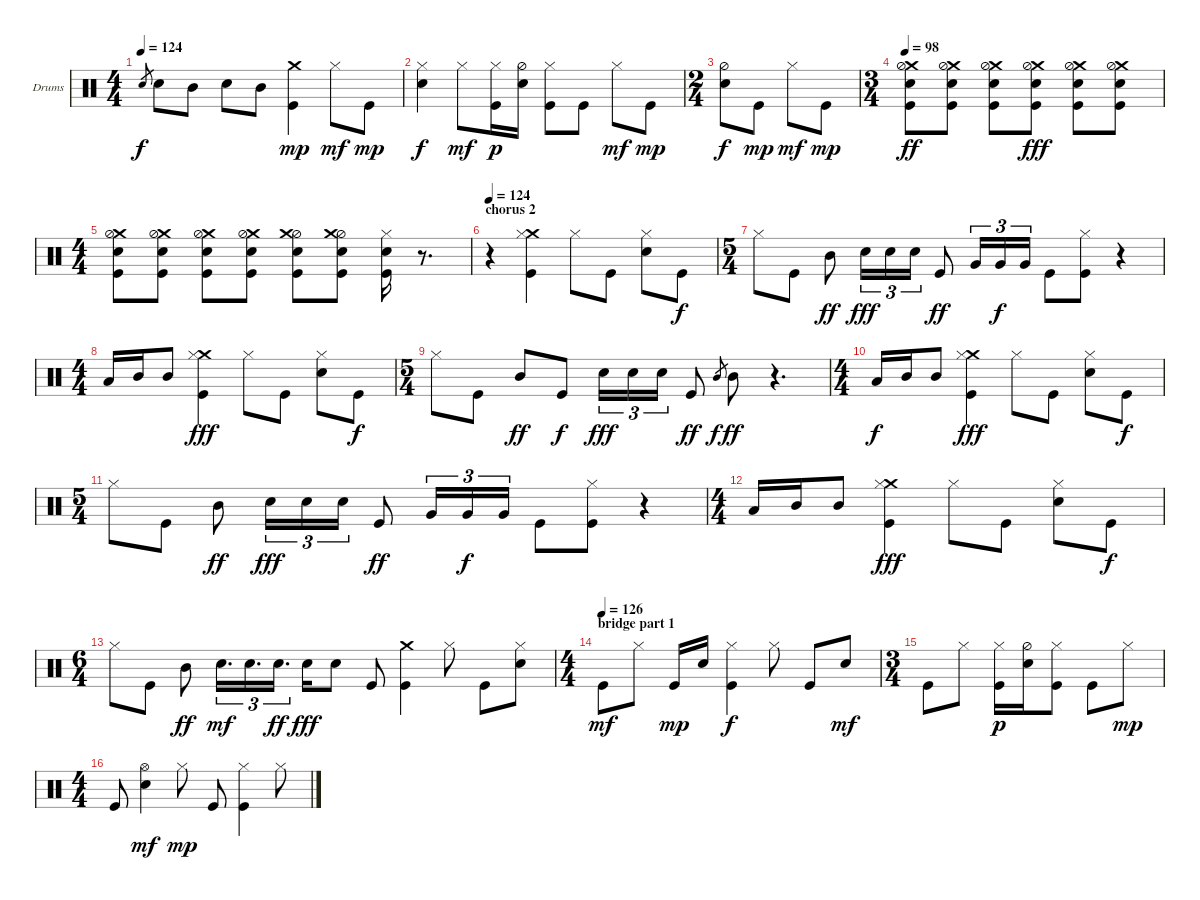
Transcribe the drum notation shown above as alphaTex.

\bracketExtendMode groupsimilarinstruments
\firstSystemTrackNameOrientation horizontal
\otherSystemsTrackNameOrientation horizontal
\track ("drums - john hinch" "Drums") {instrument percussion}
\staff {score}
\articulation defaults
\ts (4 4)
\tempo 124
\clef neutral
\scale
0.333333
\ks c "Snare (hit) 2".8{gr dy f} "Snare (hit) 2".8 "Mid Tom (hit)".8 "Snare (hit) 2".8 "Mid Tom (hit)".8
("Kick (hit)" "Crash medium (hit)").4{dy mp} "Hi-Hat (closed)".8{dy mf} "Kick (hit)".8{dy mp} |
\scale
0.217054 ("Snare (hit) 2" "Hi-Hat (closed)").4{dy f} "Hi-Hat (closed)".8{dy mf} ("Kick (hit)" "Hi-Hat (closed)").16{dy p} ("Snare (hit) 2" "Hi-Hat (half)").16 ("Kick (hit)" "Hi-Hat (closed)").8 "Kick (hit)".8 "Hi-Hat (closed)".8{dy mf} "Kick (hit)".8{dy mp} |
\ts (2 4)
\scale
0.391473 ("Snare (hit) 2" "Hi-Hat (half)").8{dy f} "Kick (hit)".8{dy mp} "Hi-Hat (closed)".8{dy mf} "Kick (hit)".8{dy mp} |
\ts (3 4)
\tempo 98
\scale
0.391473 ("Kick (hit)" "Crash medium (hit)" "Hi-Hat (half)" "Snare (hit) 2").8{dy ff} ("Kick (hit)" "Crash medium (hit)" "Hi-Hat (half)" "Snare (hit) 2").8 ("Kick (hit)" "Crash medium (hit)" "Hi-Hat (half)" "Snare (hit) 2").8 ("Kick (hit)" "Crash medium (hit)" "Hi-Hat (half)" "Snare (hit) 2").8{dy fff} ("Kick (hit)" "Crash medium (hit)" "Hi-Hat (half)" "Snare (hit) 2").8 ("Kick (hit)" "Crash medium (hit)" "Hi-Hat (half)" "Snare (hit) 2").8 |
\ts (4 4)
\scale
0.262911 ("Kick (hit)" "Crash medium (hit)" "Hi-Hat (half)" "Snare (hit) 2").8 ("Kick (hit)" "Crash medium (hit)" "Hi-Hat (half)" "Snare (hit) 2").8 ("Kick (hit)" "Crash medium (hit)" "Hi-Hat (half)" "Snare (hit) 2").8 ("Kick (hit)" "Crash medium (hit)" "Hi-Hat (half)" "Snare (hit) 2").8 ("Kick (hit)" "Hi-Hat (half)" "Snare (hit) 2" "Crash medium (hit)").8 ("Kick (hit)" "Hi-Hat (half)" "Snare (hit) 2" "Crash medium (hit)").8 ("Kick (hit)" "Hi-Hat (closed)" "Snare (hit) 2").16 r.8{d} |
\section ("" "chorus 2")
\tempo 124
\scale
0.262911 r.4 ("Kick (hit)" "Crash medium (hit)" "Hi-Hat (closed)").4 "Hi-Hat (closed)".8 "Kick (hit)".8 ("Snare (hit) 2" "Hi-Hat (closed)").8 "Kick (hit)".8{dy f} |
\ts (5 4)
\scale
0.474178 "Hi-Hat (closed)".8 "Kick (hit)".8 "Mid Tom (hit)".8{dy ff} "Snare (hit) 2".16{tu (3 2) dy fff} "Snare (hit) 2".16{tu (3 2)} "Snare (hit) 2".16{tu (3 2)} "Kick (hit)".8{dy ff} "Very Low Tom (hit)".16{tu (3 2)} "Very Low Tom (hit)".16{tu (3 2) dy f} "Very Low Tom (hit)".16{tu (3 2)} "Kick (hit)".8 ("Kick (hit)" "Hi-Hat (closed)").8 r.4 |
\ts (4 4)
\scale
0.333333 "Low Tom (hit)".16 "Mid Tom (hit)".16 "Mid Tom (hit)".8 ("Kick (hit)" "Crash medium (hit)" "Hi-Hat (closed)").4{dy fff} "Hi-Hat (closed)".8 "Kick (hit)".8 ("Snare (hit) 2" "Hi-Hat (closed)").8 "Kick (hit)".8{dy f} |
\ts (5 4)
\scale
0.47304
\scale
0.333333 "Hi-Hat (closed)".8 "Kick (hit)".8 "Mid Tom (hit)".8{dy ff} "Kick (hit)".8{dy f} "Snare (hit) 2".16{tu (3 2) dy fff} "Snare (hit) 2".16{tu (3 2)} "Snare (hit) 2".16{tu (3 2)} "Kick (hit)".8{dy ff} "Mid Tom (hit)".8{gr dy f} "Mid Tom (hit)".8{dy ff} r.4{d} |
\ts (4 4)
\scale
0.284064
\scale
0.333333 "Low Tom (hit)".16{dy f} "Mid Tom (hit)".16 "Mid Tom (hit)".8 ("Kick (hit)" "Crash medium (hit)" "Hi-Hat (closed)").4{dy fff} "Hi-Hat (closed)".8 "Kick (hit)".8 ("Snare (hit) 2" "Hi-Hat (closed)").8 "Kick (hit)".8{dy f} |
\ts (5 4)
\scale
0.243665
\scale
0.333333 "Hi-Hat (closed)".8 "Kick (hit)".8 "Mid Tom (hit)".8{dy ff} "Snare (hit) 2".16{tu (3 2) dy fff} "Snare (hit) 2".16{tu (3 2)} "Snare (hit) 2".16{tu (3 2)} "Kick (hit)".8{dy ff} "Very Low Tom (hit)".16{tu (3 2)} "Very Low Tom (hit)".16{tu (3 2) dy f} "Very Low Tom (hit)".16{tu (3 2)} "Kick (hit)".8 ("Kick (hit)" "Hi-Hat (closed)").8 r.4 |
\ts (4 4)
\scale
0.333333 "Low Tom (hit)".16 "Mid Tom (hit)".16 "Mid Tom (hit)".8 ("Kick (hit)" "Crash medium (hit)" "Hi-Hat (closed)").4{dy fff} "Hi-Hat (closed)".8 "Kick (hit)".8 ("Snare (hit) 2" "Hi-Hat (closed)").8 "Kick (hit)".8{dy f} |
\ts (6 4)
\scale
0.333333 "Hi-Hat (closed)".8 "Kick (hit)".8 "Mid Tom (hit)".8{dy ff} "Snare (hit) 2".16{d tu (3 2) dy mf} "Snare (hit) 2".16{d tu (3 2)} "Snare (hit) 2".16{d tu (3 2) dy ff} "Snare (hit) 2".16{dy fff} "Snare (hit) 2".8 "Kick (hit)".8 ("Kick (hit)" "Crash medium (hit)").4 "Hi-Hat (closed)".8 "Kick (hit)".8 ("Snare (hit) 2" "Hi-Hat (closed)").8 |
\ts (4 4)
\section ("" "bridge part 1")
\tempo 126
\scale
0.333333 "Kick (hit)".8{dy mf} "Hi-Hat (closed)".8 "Kick (hit)".16{dy mp} "Snare (hit) 2".16 ("Kick (hit)" "Hi-Hat (closed)").4{dy f} "Hi-Hat (closed)".8 "Kick (hit)".8 "Snare (hit) 2".8{dy mf} |
\ts (3 4)
\scale
0.333333 "Kick (hit)".8 "Hi-Hat (closed)".8 ("Kick (hit)" "Hi-Hat (closed)").16{dy p} ("Snare (hit) 2" "Hi-Hat (half)").16 ("Kick (hit)" "Hi-Hat (closed)").8 "Kick (hit)".8 "Hi-Hat (closed)".8{dy mp} |
\ts (4 4)
\scale
0.333333 "Kick (hit)".8 ("Snare (hit) 2" "Hi-Hat (open)").4{dy mf} "Hi-Hat (closed)".8{dy mp} "Kick (hit)".8 ("Hi-Hat (closed)" "Kick (hit)").4 "Hi-Hat (closed)".8
